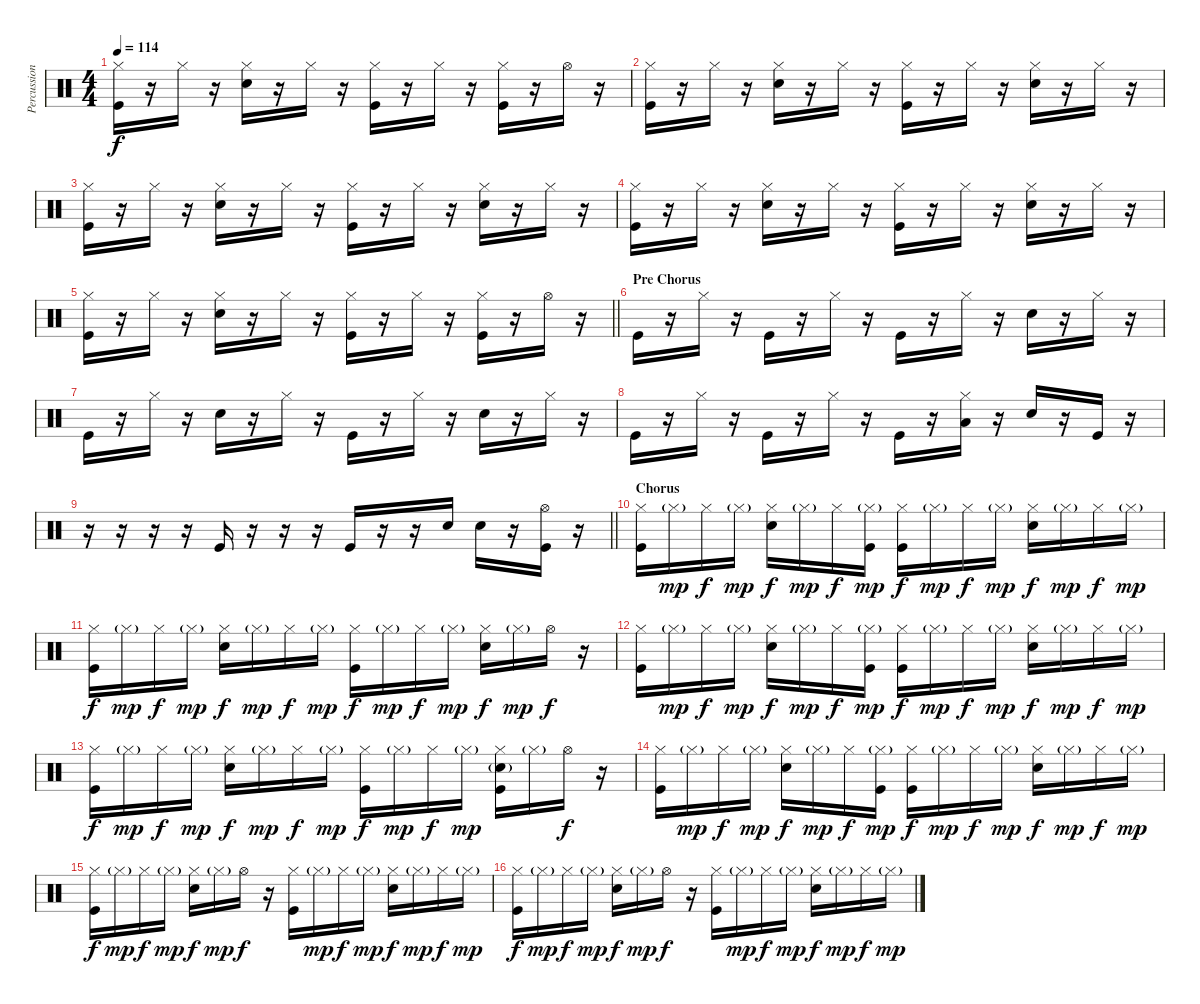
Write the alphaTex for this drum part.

\track ("Percussion" "Percussion") {instrument percussion bank 177}
\staff {score}
\articulation defaults
\ts (4 4)
\tempo 114
\clef neutral
\ks c
("Hi-Hat (closed)" "Kick (hit)").16{dy f} r.16 "Hi-Hat (closed)".16 r.16 ("Hi-Hat (closed)" "Snare (hit) 2").16 r.16 "Hi-Hat (closed)".16 r.16 ("Hi-Hat (closed)" "Kick (hit)").16 r.16 "Hi-Hat (closed)".16 r.16 ("Hi-Hat (closed)" "Kick (hit)").16 r.16 "Hi-Hat (open)".16 r.16 |
("Hi-Hat (closed)" "Kick (hit)").16 r.16 "Hi-Hat (closed)".16 r.16 ("Hi-Hat (closed)" "Snare (hit) 2").16 r.16 "Hi-Hat (closed)".16 r.16 ("Hi-Hat (closed)" "Kick (hit)").16 r.16 "Hi-Hat (closed)".16 r.16 ("Hi-Hat (closed)" "Snare (hit) 2").16 r.16 "Hi-Hat (closed)".16 r.16 |
("Hi-Hat (closed)" "Kick (hit)").16 r.16 "Hi-Hat (closed)".16 r.16 ("Hi-Hat (closed)" "Snare (hit) 2").16 r.16 "Hi-Hat (closed)".16 r.16 ("Hi-Hat (closed)" "Kick (hit)").16 r.16 "Hi-Hat (closed)".16 r.16 ("Hi-Hat (closed)" "Snare (hit) 2").16 r.16 "Hi-Hat (closed)".16 r.16 |
("Hi-Hat (closed)" "Kick (hit)").16 r.16 "Hi-Hat (closed)".16 r.16 ("Hi-Hat (closed)" "Snare (hit) 2").16 r.16 "Hi-Hat (closed)".16 r.16 ("Hi-Hat (closed)" "Kick (hit)").16 r.16 "Hi-Hat (closed)".16 r.16 ("Hi-Hat (closed)" "Snare (hit) 2").16 r.16 "Hi-Hat (closed)".16 r.16 |
\barLineRight lightlight
("Hi-Hat (closed)" "Kick (hit)").16 r.16 "Hi-Hat (closed)".16 r.16 ("Hi-Hat (closed)" "Snare (hit) 2").16 r.16 "Hi-Hat (closed)".16 r.16 ("Hi-Hat (closed)" "Kick (hit)").16 r.16 "Hi-Hat (closed)".16 r.16 ("Hi-Hat (closed)" "Kick (hit)").16 r.16 "Hi-Hat (open)".16 r.16 |
\section ("" "Pre Chorus")
"Kick (hit)".16 r.16 "Hi-Hat (closed)".16 r.16 "Kick (hit)".16 r.16 "Hi-Hat (closed)".16 r.16 "Kick (hit)".16 r.16 "Hi-Hat (closed)".16 r.16 "Snare (hit) 2".16 r.16 "Hi-Hat (closed)".16 r.16 |
"Kick (hit)".16 r.16 "Hi-Hat (closed)".16 r.16 "Snare (hit) 2".16 r.16 "Hi-Hat (closed)".16 r.16 "Kick (hit)".16 r.16 "Hi-Hat (closed)".16 r.16 "Snare (hit) 2".16 r.16 "Hi-Hat (closed)".16 r.16 |
"Kick (hit)".16 r.16 "Hi-Hat (closed)".16 r.16 "Kick (hit)".16 r.16 "Hi-Hat (closed)".16 r.16 "Kick (hit)".16 r.16 ("Hi-Hat (closed)" "Low Tom (hit)").16 r.16 "Snare (hit) 2".16 r.16 "Kick (hit)".16 r.16 |
\barLineRight lightlight
r.16 r.16 r.16 r.16 "Kick (hit)".16 r.16 r.16 r.16 "Kick (hit)".16 r.16 r.16 "Snare (hit) 2".16 "Snare (hit) 2".16 r.16 ("Hi-Hat (open)" "Kick (hit)").16 r.16 |
\section ("" "Chorus")
("Hi-Hat (closed)" "Kick (hit)").16 "Hi-Hat (closed)"{g}.16{dy mp} "Hi-Hat (closed)".16{dy f} "Hi-Hat (closed)"{g}.16{dy mp} ("Hi-Hat (closed)" "Snare (hit) 2").16{dy f} "Hi-Hat (closed)"{g}.16{dy mp} "Hi-Hat (closed)".16{dy f} ("Hi-Hat (closed)"{g} "Kick (hit)").16{dy mp} ("Hi-Hat (closed)" "Kick (hit)").16{dy f} "Hi-Hat (closed)"{g}.16{dy mp} "Hi-Hat (closed)".16{dy f} "Hi-Hat (closed)"{g}.16{dy mp} ("Hi-Hat (closed)" "Snare (hit) 2").16{dy f} "Hi-Hat (closed)"{g}.16{dy mp} "Hi-Hat (closed)".16{dy f} "Hi-Hat (closed)"{g}.16{dy mp} |
("Hi-Hat (closed)" "Kick (hit)").16{dy f} "Hi-Hat (closed)"{g}.16{dy mp} "Hi-Hat (closed)".16{dy f} "Hi-Hat (closed)"{g}.16{dy mp} ("Hi-Hat (closed)" "Snare (hit) 2").16{dy f} "Hi-Hat (closed)"{g}.16{dy mp} "Hi-Hat (closed)".16{dy f} "Hi-Hat (closed)"{g}.16{dy mp} ("Hi-Hat (closed)" "Kick (hit)").16{dy f} "Hi-Hat (closed)"{g}.16{dy mp} "Hi-Hat (closed)".16{dy f} "Hi-Hat (closed)"{g}.16{dy mp} ("Hi-Hat (closed)" "Snare (hit) 2").16{dy f} "Hi-Hat (closed)"{g}.16{dy mp} "Hi-Hat (open)".16{dy f} r.16 |
("Hi-Hat (closed)" "Kick (hit)").16 "Hi-Hat (closed)"{g}.16{dy mp} "Hi-Hat (closed)".16{dy f} "Hi-Hat (closed)"{g}.16{dy mp} ("Hi-Hat (closed)" "Snare (hit) 2").16{dy f} "Hi-Hat (closed)"{g}.16{dy mp} "Hi-Hat (closed)".16{dy f} ("Hi-Hat (closed)"{g} "Kick (hit)").16{dy mp} ("Hi-Hat (closed)" "Kick (hit)").16{dy f} "Hi-Hat (closed)"{g}.16{dy mp} "Hi-Hat (closed)".16{dy f} "Hi-Hat (closed)"{g}.16{dy mp} ("Hi-Hat (closed)" "Snare (hit) 2").16{dy f} "Hi-Hat (closed)"{g}.16{dy mp} "Hi-Hat (closed)".16{dy f} "Hi-Hat (closed)"{g}.16{dy mp} |
("Hi-Hat (closed)" "Kick (hit)").16{dy f} "Hi-Hat (closed)"{g}.16{dy mp} "Hi-Hat (closed)".16{dy f} "Hi-Hat (closed)"{g}.16{dy mp} ("Hi-Hat (closed)" "Snare (hit) 2").16{dy f} "Hi-Hat (closed)"{g}.16{dy mp} "Hi-Hat (closed)".16{dy f} "Hi-Hat (closed)"{g}.16{dy mp} ("Hi-Hat (closed)" "Kick (hit)").16{dy f} "Hi-Hat (closed)"{g}.16{dy mp} "Hi-Hat (closed)".16{dy f} "Hi-Hat (closed)"{g}.16{dy mp} ("Hi-Hat (closed)" "Snare (hit) 2"{g} "Kick (hit)").16 "Hi-Hat (closed)"{g}.16 "Hi-Hat (open)".16{dy f} r.16 |
("Hi-Hat (closed)" "Kick (hit)").16 "Hi-Hat (closed)"{g}.16{dy mp} "Hi-Hat (closed)".16{dy f} "Hi-Hat (closed)"{g}.16{dy mp} ("Hi-Hat (closed)" "Snare (hit) 2").16{dy f} "Hi-Hat (closed)"{g}.16{dy mp} "Hi-Hat (closed)".16{dy f} ("Hi-Hat (closed)"{g} "Kick (hit)").16{dy mp} ("Hi-Hat (closed)" "Kick (hit)").16{dy f} "Hi-Hat (closed)"{g}.16{dy mp} "Hi-Hat (closed)".16{dy f} "Hi-Hat (closed)"{g}.16{dy mp} ("Hi-Hat (closed)" "Snare (hit) 2").16{dy f} "Hi-Hat (closed)"{g}.16{dy mp} "Hi-Hat (closed)".16{dy f} "Hi-Hat (closed)"{g}.16{dy mp} |
("Hi-Hat (closed)" "Kick (hit)").16{dy f} "Hi-Hat (closed)"{g}.16{dy mp} "Hi-Hat (closed)".16{dy f} "Hi-Hat (closed)"{g}.16{dy mp} ("Hi-Hat (closed)" "Snare (hit) 2").16{dy f} "Hi-Hat (closed)"{g}.16{dy mp} "Hi-Hat (open)".16{dy f} r.16 ("Hi-Hat (closed)" "Kick (hit)").16 "Hi-Hat (closed)"{g}.16{dy mp} "Hi-Hat (closed)".16{dy f} "Hi-Hat (closed)"{g}.16{dy mp} ("Hi-Hat (closed)" "Snare (hit) 2").16{dy f} "Hi-Hat (closed)"{g}.16{dy mp} "Hi-Hat (closed)".16{dy f} "Hi-Hat (closed)"{g}.16{dy mp} |
("Hi-Hat (closed)" "Kick (hit)").16{dy f} "Hi-Hat (closed)"{g}.16{dy mp} "Hi-Hat (closed)".16{dy f} "Hi-Hat (closed)"{g}.16{dy mp} ("Hi-Hat (closed)" "Snare (hit) 2").16{dy f} "Hi-Hat (closed)"{g}.16{dy mp} "Hi-Hat (open)".16{dy f} r.16 ("Hi-Hat (closed)" "Kick (hit)").16 "Hi-Hat (closed)"{g}.16{dy mp} "Hi-Hat (closed)".16{dy f} "Hi-Hat (closed)"{g}.16{dy mp} ("Hi-Hat (closed)" "Snare (hit) 2").16{dy f} "Hi-Hat (closed)"{g}.16{dy mp} "Hi-Hat (closed)".16{dy f} "Hi-Hat (closed)"{g}.16{dy mp}
